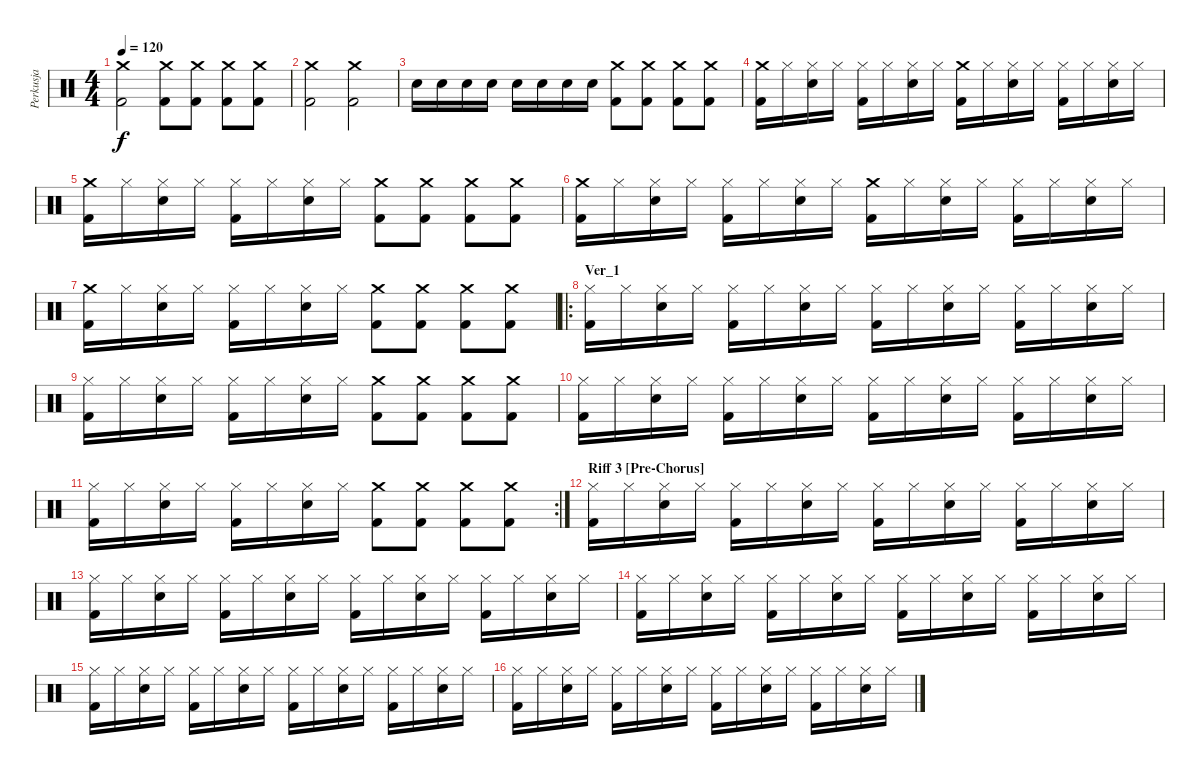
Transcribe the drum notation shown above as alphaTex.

\track ("Perkusja" "Perkusja") {instrument percussion}
\staff {score}
\articulation defaults
\ts (4 4)
\tempo 120
\clef neutral
\ks c
("Crash medium (hit)" "Kick (hit) 2").2{dy f} ("Crash medium (hit)" "Kick (hit) 2").8 ("Crash medium (hit)" "Kick (hit) 2").8 ("Crash medium (hit)" "Kick (hit) 2").8 ("Crash medium (hit)" "Kick (hit) 2").8 |
("Crash medium (hit)" "Kick (hit) 2").2 ("Crash medium (hit)" "Kick (hit) 2").2 |
"Snare (hit) 2".16 "Snare (hit) 2".16 "Snare (hit) 2".16 "Snare (hit) 2".16 "Snare (hit) 2".16 "Snare (hit) 2".16 "Snare (hit) 2".16 "Snare (hit) 2".16 ("Crash medium (hit)" "Kick (hit) 2").8 ("Crash medium (hit)" "Kick (hit) 2").8 ("Crash medium (hit)" "Kick (hit) 2").8 ("Crash medium (hit)" "Kick (hit) 2").8 |
("Crash medium (hit)" "Kick (hit) 2").16 "Hi-Hat (closed)".16 ("Hi-Hat (closed)" "Snare (hit) 2").16 "Hi-Hat (closed)".16 ("Hi-Hat (closed)" "Kick (hit) 2").16 "Hi-Hat (closed)".16 ("Hi-Hat (closed)" "Snare (hit) 2").16 "Hi-Hat (closed)".16 ("Crash medium (hit)" "Kick (hit) 2").16 "Hi-Hat (closed)".16 ("Hi-Hat (closed)" "Snare (hit) 2").16 "Hi-Hat (closed)".16 ("Hi-Hat (closed)" "Kick (hit) 2").16 "Hi-Hat (closed)".16 ("Hi-Hat (closed)" "Snare (hit) 2").16 "Hi-Hat (closed)".16 |
("Crash medium (hit)" "Kick (hit) 2").16 "Hi-Hat (closed)".16 ("Hi-Hat (closed)" "Snare (hit) 2").16 "Hi-Hat (closed)".16 ("Hi-Hat (closed)" "Kick (hit) 2").16 "Hi-Hat (closed)".16 ("Hi-Hat (closed)" "Snare (hit) 2").16 "Hi-Hat (closed)".16 ("Crash medium (hit)" "Kick (hit) 2").8 ("Crash medium (hit)" "Kick (hit) 2").8 ("Crash medium (hit)" "Kick (hit) 2").8 ("Crash medium (hit)" "Kick (hit) 2").8 |
("Crash medium (hit)" "Kick (hit) 2").16 "Hi-Hat (closed)".16 ("Hi-Hat (closed)" "Snare (hit) 2").16 "Hi-Hat (closed)".16 ("Hi-Hat (closed)" "Kick (hit) 2").16 "Hi-Hat (closed)".16 ("Hi-Hat (closed)" "Snare (hit) 2").16 "Hi-Hat (closed)".16 ("Crash medium (hit)" "Kick (hit) 2").16 "Hi-Hat (closed)".16 ("Hi-Hat (closed)" "Snare (hit) 2").16 "Hi-Hat (closed)".16 ("Hi-Hat (closed)" "Kick (hit) 2").16 "Hi-Hat (closed)".16 ("Hi-Hat (closed)" "Snare (hit) 2").16 "Hi-Hat (closed)".16 |
("Crash medium (hit)" "Kick (hit) 2").16 "Hi-Hat (closed)".16 ("Hi-Hat (closed)" "Snare (hit) 2").16 "Hi-Hat (closed)".16 ("Hi-Hat (closed)" "Kick (hit) 2").16 "Hi-Hat (closed)".16 ("Hi-Hat (closed)" "Snare (hit) 2").16 "Hi-Hat (closed)".16 ("Crash medium (hit)" "Kick (hit) 2").8 ("Crash medium (hit)" "Kick (hit) 2").8 ("Crash medium (hit)" "Kick (hit) 2").8 ("Crash medium (hit)" "Kick (hit) 2").8 |
\ro
\section ("" "Ver_1")
("Hi-Hat (closed)" "Kick (hit) 2").16 "Hi-Hat (closed)".16 ("Hi-Hat (closed)" "Snare (hit) 2").16 "Hi-Hat (closed)".16 ("Hi-Hat (closed)" "Kick (hit) 2").16 "Hi-Hat (closed)".16 ("Hi-Hat (closed)" "Snare (hit) 2").16 "Hi-Hat (closed)".16 ("Hi-Hat (closed)" "Kick (hit) 2").16 "Hi-Hat (closed)".16 ("Hi-Hat (closed)" "Snare (hit) 2").16 "Hi-Hat (closed)".16 ("Hi-Hat (closed)" "Kick (hit) 2").16 "Hi-Hat (closed)".16 ("Hi-Hat (closed)" "Snare (hit) 2").16 "Hi-Hat (closed)".16 |
("Hi-Hat (closed)" "Kick (hit) 2").16 "Hi-Hat (closed)".16 ("Hi-Hat (closed)" "Snare (hit) 2").16 "Hi-Hat (closed)".16 ("Hi-Hat (closed)" "Kick (hit) 2").16 "Hi-Hat (closed)".16 ("Hi-Hat (closed)" "Snare (hit) 2").16 "Hi-Hat (closed)".16 ("Crash medium (hit)" "Kick (hit) 2").8 ("Crash medium (hit)" "Kick (hit) 2").8 ("Crash medium (hit)" "Kick (hit) 2").8 ("Crash medium (hit)" "Kick (hit) 2").8 |
("Hi-Hat (closed)" "Kick (hit) 2").16 "Hi-Hat (closed)".16 ("Hi-Hat (closed)" "Snare (hit) 2").16 "Hi-Hat (closed)".16 ("Hi-Hat (closed)" "Kick (hit) 2").16 "Hi-Hat (closed)".16 ("Hi-Hat (closed)" "Snare (hit) 2").16 "Hi-Hat (closed)".16 ("Hi-Hat (closed)" "Kick (hit) 2").16 "Hi-Hat (closed)".16 ("Hi-Hat (closed)" "Snare (hit) 2").16 "Hi-Hat (closed)".16 ("Hi-Hat (closed)" "Kick (hit) 2").16 "Hi-Hat (closed)".16 ("Hi-Hat (closed)" "Snare (hit) 2").16 "Hi-Hat (closed)".16 |
\rc 2
("Hi-Hat (closed)" "Kick (hit) 2").16 "Hi-Hat (closed)".16 ("Hi-Hat (closed)" "Snare (hit) 2").16 "Hi-Hat (closed)".16 ("Hi-Hat (closed)" "Kick (hit) 2").16 "Hi-Hat (closed)".16 ("Hi-Hat (closed)" "Snare (hit) 2").16 "Hi-Hat (closed)".16 ("Crash medium (hit)" "Kick (hit) 2").8 ("Crash medium (hit)" "Kick (hit) 2").8 ("Crash medium (hit)" "Kick (hit) 2").8 ("Crash medium (hit)" "Kick (hit) 2").8 |
\section ("" "Riff 3 [Pre-Chorus]")
("Hi-Hat (closed)" "Kick (hit) 2").16 "Hi-Hat (closed)".16 ("Hi-Hat (closed)" "Snare (hit) 2").16 "Hi-Hat (closed)".16 ("Hi-Hat (closed)" "Kick (hit) 2").16 "Hi-Hat (closed)".16 ("Hi-Hat (closed)" "Snare (hit) 2").16 "Hi-Hat (closed)".16 ("Hi-Hat (closed)" "Kick (hit) 2").16 "Hi-Hat (closed)".16 ("Hi-Hat (closed)" "Snare (hit) 2").16 "Hi-Hat (closed)".16 ("Hi-Hat (closed)" "Kick (hit) 2").16 "Hi-Hat (closed)".16 ("Hi-Hat (closed)" "Snare (hit) 2").16 "Hi-Hat (closed)".16 |
("Hi-Hat (closed)" "Kick (hit) 2").16 "Hi-Hat (closed)".16 ("Hi-Hat (closed)" "Snare (hit) 2").16 "Hi-Hat (closed)".16 ("Hi-Hat (closed)" "Kick (hit) 2").16 "Hi-Hat (closed)".16 ("Hi-Hat (closed)" "Snare (hit) 2").16 "Hi-Hat (closed)".16 ("Hi-Hat (closed)" "Kick (hit) 2").16 "Hi-Hat (closed)".16 ("Hi-Hat (closed)" "Snare (hit) 2").16 "Hi-Hat (closed)".16 ("Hi-Hat (closed)" "Kick (hit) 2").16 "Hi-Hat (closed)".16 ("Hi-Hat (closed)" "Snare (hit) 2").16 "Hi-Hat (closed)".16 |
("Hi-Hat (closed)" "Kick (hit) 2").16 "Hi-Hat (closed)".16 ("Hi-Hat (closed)" "Snare (hit) 2").16 "Hi-Hat (closed)".16 ("Hi-Hat (closed)" "Kick (hit) 2").16 "Hi-Hat (closed)".16 ("Hi-Hat (closed)" "Snare (hit) 2").16 "Hi-Hat (closed)".16 ("Hi-Hat (closed)" "Kick (hit) 2").16 "Hi-Hat (closed)".16 ("Hi-Hat (closed)" "Snare (hit) 2").16 "Hi-Hat (closed)".16 ("Hi-Hat (closed)" "Kick (hit) 2").16 "Hi-Hat (closed)".16 ("Hi-Hat (closed)" "Snare (hit) 2").16 "Hi-Hat (closed)".16 |
("Hi-Hat (closed)" "Kick (hit) 2").16 "Hi-Hat (closed)".16 ("Hi-Hat (closed)" "Snare (hit) 2").16 "Hi-Hat (closed)".16 ("Hi-Hat (closed)" "Kick (hit) 2").16 "Hi-Hat (closed)".16 ("Hi-Hat (closed)" "Snare (hit) 2").16 "Hi-Hat (closed)".16 ("Hi-Hat (closed)" "Kick (hit) 2").16 "Hi-Hat (closed)".16 ("Hi-Hat (closed)" "Snare (hit) 2").16 "Hi-Hat (closed)".16 ("Hi-Hat (closed)" "Kick (hit) 2").16 "Hi-Hat (closed)".16 ("Hi-Hat (closed)" "Snare (hit) 2").16 "Hi-Hat (closed)".16 |
("Hi-Hat (closed)" "Kick (hit) 2").16 "Hi-Hat (closed)".16 ("Hi-Hat (closed)" "Snare (hit) 2").16 "Hi-Hat (closed)".16 ("Hi-Hat (closed)" "Kick (hit) 2").16 "Hi-Hat (closed)".16 ("Hi-Hat (closed)" "Snare (hit) 2").16 "Hi-Hat (closed)".16 ("Hi-Hat (closed)" "Kick (hit) 2").16 "Hi-Hat (closed)".16 ("Hi-Hat (closed)" "Snare (hit) 2").16 "Hi-Hat (closed)".16 ("Hi-Hat (closed)" "Kick (hit) 2").16 "Hi-Hat (closed)".16 ("Hi-Hat (closed)" "Snare (hit) 2").16 "Hi-Hat (closed)".16
